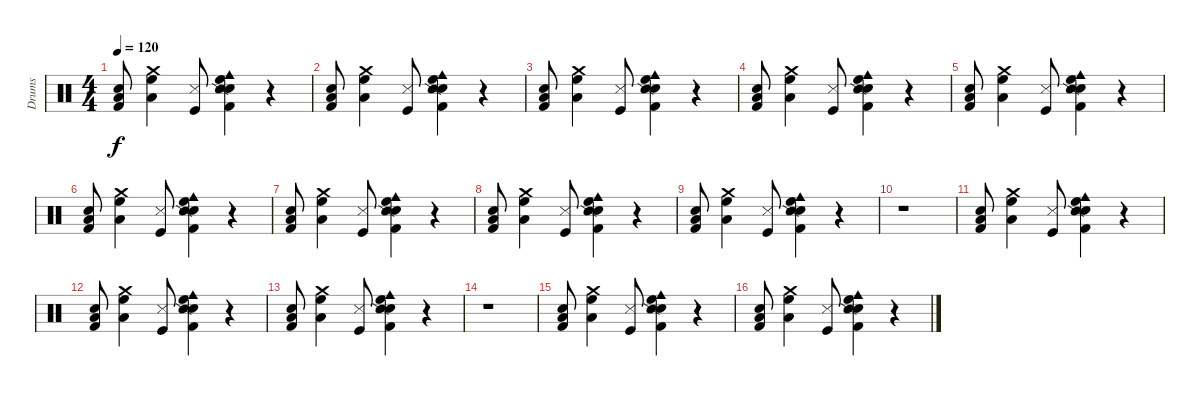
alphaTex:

\track ("Drums" "Drums") {instrument percussion}
\staff {score}
\articulation defaults
\ts (4 4)
\tempo 120
\clef neutral
\ks c
("Kick (hit) 2" "Low Floor Tom (hit)" "Electric Snare (hit)").8{dy f} ("Crash medium (hit)" "High Floor Tom (hit)" "Low Tom (hit)").4 ("Kick (hit)" "Snare (side stick) 3").8 ("Electric Snare (hit)" "High Floor Tom (hit)" "Snare (side stick) 2" "Cowbell medium (hit)" "Kick (hit) 2").4 r.4 |
("Kick (hit) 2" "Low Floor Tom (hit)" "Electric Snare (hit)").8 ("Crash medium (hit)" "High Floor Tom (hit)" "Low Tom (hit)").4 ("Kick (hit)" "Snare (side stick) 3").8 ("Electric Snare (hit)" "High Floor Tom (hit)" "Snare (side stick) 2" "Cowbell medium (hit)" "Kick (hit) 2").4 r.4 |
("Kick (hit) 2" "Low Floor Tom (hit)" "Electric Snare (hit)").8 ("Crash medium (hit)" "High Floor Tom (hit)" "Low Tom (hit)").4 ("Kick (hit)" "Snare (side stick) 3").8 ("Electric Snare (hit)" "High Floor Tom (hit)" "Snare (side stick) 2" "Cowbell medium (hit)" "Kick (hit) 2").4 r.4 |
("Kick (hit) 2" "Low Floor Tom (hit)" "Electric Snare (hit)").8 ("Crash medium (hit)" "High Floor Tom (hit)" "Low Tom (hit)").4 ("Kick (hit)" "Snare (side stick) 3").8 ("Electric Snare (hit)" "High Floor Tom (hit)" "Snare (side stick) 2" "Cowbell medium (hit)" "Kick (hit) 2").4 r.4 |
("Kick (hit) 2" "Low Floor Tom (hit)" "Electric Snare (hit)").8 ("Crash medium (hit)" "High Floor Tom (hit)" "Low Tom (hit)").4 ("Kick (hit)" "Snare (side stick) 3").8 ("Electric Snare (hit)" "High Floor Tom (hit)" "Snare (side stick) 2" "Cowbell medium (hit)" "Kick (hit) 2").4 r.4 |
("Kick (hit) 2" "Low Floor Tom (hit)" "Electric Snare (hit)").8 ("Crash medium (hit)" "High Floor Tom (hit)" "Low Tom (hit)").4 ("Kick (hit)" "Snare (side stick) 3").8 ("Electric Snare (hit)" "High Floor Tom (hit)" "Snare (side stick) 2" "Cowbell medium (hit)" "Kick (hit) 2").4 r.4 |
("Kick (hit) 2" "Low Floor Tom (hit)" "Electric Snare (hit)").8 ("Crash medium (hit)" "High Floor Tom (hit)" "Low Tom (hit)").4 ("Kick (hit)" "Snare (side stick) 3").8 ("Electric Snare (hit)" "High Floor Tom (hit)" "Snare (side stick) 2" "Cowbell medium (hit)" "Kick (hit) 2").4 r.4 |
("Kick (hit) 2" "Low Floor Tom (hit)" "Electric Snare (hit)").8 ("Crash medium (hit)" "High Floor Tom (hit)" "Low Tom (hit)").4 ("Kick (hit)" "Snare (side stick) 3").8 ("Electric Snare (hit)" "High Floor Tom (hit)" "Snare (side stick) 2" "Cowbell medium (hit)" "Kick (hit) 2").4 r.4 |
("Kick (hit) 2" "Low Floor Tom (hit)" "Electric Snare (hit)").8 ("Crash medium (hit)" "High Floor Tom (hit)" "Low Tom (hit)").4 ("Kick (hit)" "Snare (side stick) 3").8 ("Electric Snare (hit)" "High Floor Tom (hit)" "Snare (side stick) 2" "Cowbell medium (hit)" "Kick (hit) 2").4 r.4 |
r.1 |
("Kick (hit) 2" "Low Floor Tom (hit)" "Electric Snare (hit)").8 ("Crash medium (hit)" "High Floor Tom (hit)" "Low Tom (hit)").4 ("Kick (hit)" "Snare (side stick) 3").8 ("Electric Snare (hit)" "High Floor Tom (hit)" "Snare (side stick) 2" "Cowbell medium (hit)" "Kick (hit) 2").4 r.4 |
("Kick (hit) 2" "Low Floor Tom (hit)" "Electric Snare (hit)").8 ("Crash medium (hit)" "High Floor Tom (hit)" "Low Tom (hit)").4 ("Kick (hit)" "Snare (side stick) 3").8 ("Electric Snare (hit)" "High Floor Tom (hit)" "Snare (side stick) 2" "Cowbell medium (hit)" "Kick (hit) 2").4 r.4 |
("Kick (hit) 2" "Low Floor Tom (hit)" "Electric Snare (hit)").8 ("Crash medium (hit)" "High Floor Tom (hit)" "Low Tom (hit)").4 ("Kick (hit)" "Snare (side stick) 3").8 ("Electric Snare (hit)" "High Floor Tom (hit)" "Snare (side stick) 2" "Cowbell medium (hit)" "Kick (hit) 2").4 r.4 |
r.1 |
("Kick (hit) 2" "Low Floor Tom (hit)" "Electric Snare (hit)").8 ("Crash medium (hit)" "High Floor Tom (hit)" "Low Tom (hit)").4 ("Kick (hit)" "Snare (side stick) 3").8 ("Electric Snare (hit)" "High Floor Tom (hit)" "Snare (side stick) 2" "Cowbell medium (hit)" "Kick (hit) 2").4 r.4 |
("Kick (hit) 2" "Low Floor Tom (hit)" "Electric Snare (hit)").8 ("Crash medium (hit)" "High Floor Tom (hit)" "Low Tom (hit)").4 ("Kick (hit)" "Snare (side stick) 3").8 ("Electric Snare (hit)" "High Floor Tom (hit)" "Snare (side stick) 2" "Cowbell medium (hit)" "Kick (hit) 2").4 r.4
